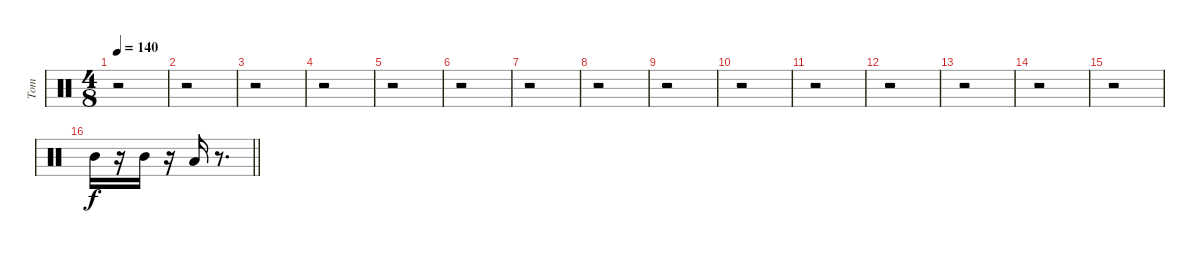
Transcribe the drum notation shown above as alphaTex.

\track ("Tom" "Tom") {instrument percussion}
\staff {score}
\articulation defaults
\ts (4 8)
\tempo 140
\clef neutral
\ks c
r.2{dy pp} |
r.2 |
r.2 |
r.2 |
r.2 |
r.2 |
r.2 |
r.2 |
r.2 |
r.2 |
r.2 |
r.2 |
r.2 |
r.2 |
r.2 |
\barLineRight lightlight "Mid Tom (hit)".16{dy f}
r.16 "Mid Tom (hit)".16 r.16 "Low Tom (hit)".16 r.8{d}
